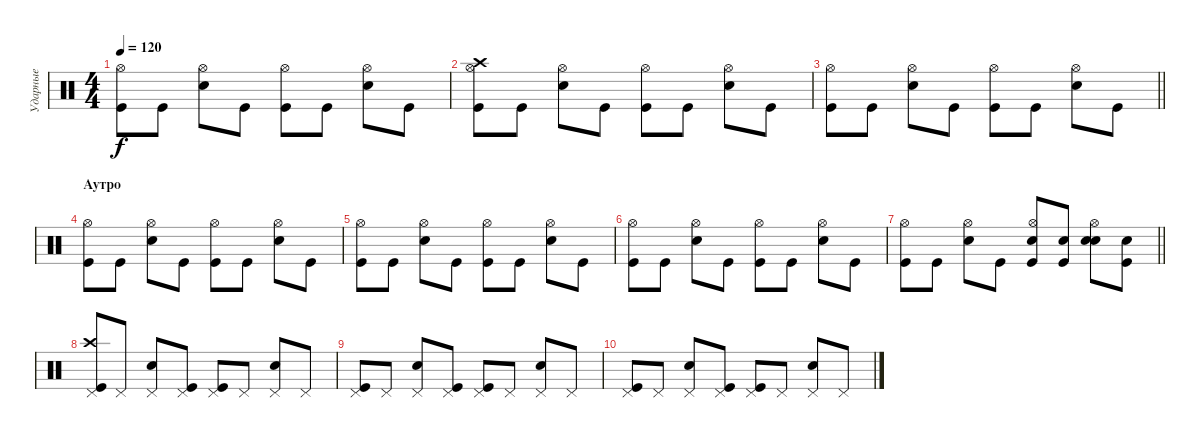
\track ("Ударные" "Ударные") {instrument percussion}
\staff {score}
\articulation defaults
\ts (4 4)
\tempo 120
\clef neutral
\ks c
("Kick (hit)" "Hi-Hat (open)").8{dy f} "Kick (hit)".8 ("Snare (hit) 2" "Hi-Hat (open)").8 "Kick (hit)".8 ("Kick (hit)" "Hi-Hat (open)").8 "Kick (hit)".8 ("Snare (hit) 2" "Hi-Hat (open)").8 "Kick (hit)".8 |
("Kick (hit)" "Hi-Hat (open)" "Crash high (hit)").8 "Kick (hit)".8 ("Snare (hit) 2" "Hi-Hat (open)").8 "Kick (hit)".8 ("Kick (hit)" "Hi-Hat (open)").8 "Kick (hit)".8 ("Snare (hit) 2" "Hi-Hat (open)").8 "Kick (hit)".8 |
\barLineRight lightlight
("Kick (hit)" "Hi-Hat (open)").8 "Kick (hit)".8 ("Snare (hit) 2" "Hi-Hat (open)").8 "Kick (hit)".8 ("Kick (hit)" "Hi-Hat (open)").8 "Kick (hit)".8 ("Snare (hit) 2" "Hi-Hat (open)").8 "Kick (hit)".8 |
\section ("" "Аутро")
("Kick (hit)" "Hi-Hat (open)").8 "Kick (hit)".8 ("Snare (hit) 2" "Hi-Hat (open)").8 "Kick (hit)".8 ("Kick (hit)" "Hi-Hat (open)").8 "Kick (hit)".8 ("Snare (hit) 2" "Hi-Hat (open)").8 "Kick (hit)".8 |
("Kick (hit)" "Hi-Hat (open)").8 "Kick (hit)".8 ("Snare (hit) 2" "Hi-Hat (open)").8 "Kick (hit)".8 ("Kick (hit)" "Hi-Hat (open)").8 "Kick (hit)".8 ("Snare (hit) 2" "Hi-Hat (open)").8 "Kick (hit)".8 |
("Kick (hit)" "Hi-Hat (open)").8 "Kick (hit)".8 ("Snare (hit) 2" "Hi-Hat (open)").8 "Kick (hit)".8 ("Kick (hit)" "Hi-Hat (open)").8 "Kick (hit)".8 ("Snare (hit) 2" "Hi-Hat (open)").8 "Kick (hit)".8 |
\barLineRight lightlight
("Kick (hit)" "Hi-Hat (open)").8 "Kick (hit)".8 ("Snare (hit) 2" "Hi-Hat (open)").8 "Kick (hit)".8 ("Kick (hit)" "Hi-Hat (open)" "Snare (hit) 2").8 ("Kick (hit)" "Snare (hit) 2").8 ("Snare (hit) 2" "Hi-Hat (open)" "Snare (hit) 2").8 ("Kick (hit)" "Snare (hit) 2").8 |
("Pedal Hi-Hat (hit)" "Kick (hit)" "Crash high (hit)").8 "Pedal Hi-Hat (hit)".8 ("Pedal Hi-Hat (hit)" "Snare (hit) 2").8 ("Pedal Hi-Hat (hit)" "Kick (hit)").8 ("Pedal Hi-Hat (hit)" "Kick (hit)").8 "Pedal Hi-Hat (hit)".8 ("Pedal Hi-Hat (hit)" "Snare (hit) 2").8 "Pedal Hi-Hat (hit)".8 |
("Pedal Hi-Hat (hit)" "Kick (hit)").8 "Pedal Hi-Hat (hit)".8 ("Pedal Hi-Hat (hit)" "Snare (hit) 2").8 ("Pedal Hi-Hat (hit)" "Kick (hit)").8 ("Pedal Hi-Hat (hit)" "Kick (hit)").8 "Pedal Hi-Hat (hit)".8 ("Pedal Hi-Hat (hit)" "Snare (hit) 2").8 "Pedal Hi-Hat (hit)".8 |
("Pedal Hi-Hat (hit)" "Kick (hit)").8 "Pedal Hi-Hat (hit)".8 ("Pedal Hi-Hat (hit)" "Snare (hit) 2").8 ("Pedal Hi-Hat (hit)" "Kick (hit)").8 ("Pedal Hi-Hat (hit)" "Kick (hit)").8 "Pedal Hi-Hat (hit)".8 ("Pedal Hi-Hat (hit)" "Snare (hit) 2").8 "Pedal Hi-Hat (hit)".8
